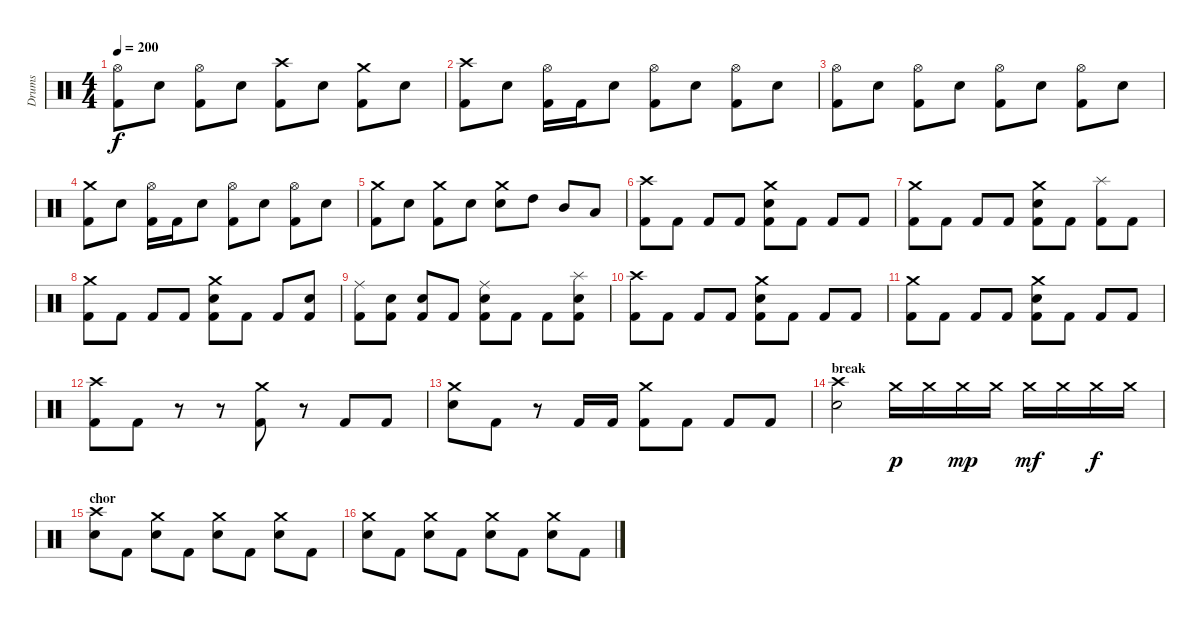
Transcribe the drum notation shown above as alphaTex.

\track ("Drums" "Drums") {instrument percussion}
\staff {score}
\articulation defaults
\ts (4 4)
\tempo 200
\clef neutral
\ks c
("Hi-Hat (open)" "Kick (hit) 2").8{dy f} "Electric Snare (hit)".8 ("Hi-Hat (open)" "Kick (hit) 2").8 "Electric Snare (hit)".8 ("Crash high (hit)" "Kick (hit) 2").8 "Electric Snare (hit)".8 ("Crash medium (hit)" "Kick (hit) 2").8 "Electric Snare (hit)".8 |
("Crash high (hit)" "Kick (hit) 2").8 "Electric Snare (hit)".8 ("Hi-Hat (open)" "Kick (hit) 2").16 "Kick (hit) 2".16 "Electric Snare (hit)".8 ("Hi-Hat (open)" "Kick (hit) 2").8 "Electric Snare (hit)".8 ("Hi-Hat (open)" "Kick (hit) 2").8 "Electric Snare (hit)".8 |
("Hi-Hat (open)" "Kick (hit) 2").8 "Electric Snare (hit)".8 ("Hi-Hat (open)" "Kick (hit) 2").8 "Electric Snare (hit)".8 ("Hi-Hat (open)" "Kick (hit) 2").8 "Electric Snare (hit)".8 ("Hi-Hat (open)" "Kick (hit) 2").8 "Electric Snare (hit)".8 |
("Crash medium (hit)" "Kick (hit) 2").8 "Electric Snare (hit)".8 ("Hi-Hat (open)" "Kick (hit) 2").16 "Kick (hit) 2".16 "Electric Snare (hit)".8 ("Hi-Hat (open)" "Kick (hit) 2").8 "Electric Snare (hit)".8 ("Hi-Hat (open)" "Kick (hit) 2").8 "Electric Snare (hit)".8 |
("Crash medium (hit)" "Kick (hit) 2").8 "Electric Snare (hit)".8 ("Crash medium (hit)" "Kick (hit) 2").8 "Electric Snare (hit)".8 ("Crash medium (hit)" "Electric Snare (hit)").8 "High Tom (hit)".8 "Mid Tom (hit)".8 "Low Tom (hit)".8 |
("Crash high (hit)" "Kick (hit) 2").8 "Kick (hit) 2".8 "Kick (hit) 2".8 "Kick (hit) 2".8 ("Crash medium (hit)" "Electric Snare (hit)" "Kick (hit) 2").8 "Kick (hit) 2".8 "Kick (hit) 2".8 "Kick (hit) 2".8 |
("Crash medium (hit)" "Kick (hit) 2").8 "Kick (hit) 2".8 "Kick (hit) 2".8 "Kick (hit) 2".8 ("Crash medium (hit)" "Electric Snare (hit)" "Kick (hit) 2").8 "Kick (hit) 2".8 ("Splash (hit)" "Kick (hit) 2").8 "Kick (hit) 2".8 |
("Crash medium (hit)" "Kick (hit) 2").8 "Kick (hit) 2".8 "Kick (hit) 2".8 "Kick (hit) 2".8 ("Crash medium (hit)" "Electric Snare (hit)" "Kick (hit) 2").8 "Kick (hit) 2".8 "Kick (hit) 2".8 ("Electric Snare (hit)" "Kick (hit) 2").8 |
("Ride (middle)" "Kick (hit) 2").8 ("Electric Snare (hit)" "Kick (hit) 2").8 ("Electric Snare (hit)" "Kick (hit) 2").8 "Kick (hit) 2".8 ("Ride (middle)" "Electric Snare (hit)" "Kick (hit) 2").8 "Kick (hit) 2".8 "Kick (hit) 2".8 ("Splash (hit)" "Electric Snare (hit)" "Kick (hit) 2").8 |
("Crash high (hit)" "Kick (hit) 2").8 "Kick (hit) 2".8 "Kick (hit) 2".8 "Kick (hit) 2".8 ("Crash medium (hit)" "Electric Snare (hit)" "Kick (hit) 2").8 "Kick (hit) 2".8 "Kick (hit) 2".8 "Kick (hit) 2".8 |
("Crash medium (hit)" "Kick (hit) 2").8 "Kick (hit) 2".8 "Kick (hit) 2".8 "Kick (hit) 2".8 ("Crash medium (hit)" "Electric Snare (hit)" "Kick (hit) 2").8 "Kick (hit) 2".8 "Kick (hit) 2".8 "Kick (hit) 2".8 |
("Crash high (hit)" "Kick (hit) 2").8 "Kick (hit) 2".8 r.8 r.8 ("Crash medium (hit)" "Kick (hit) 2").8 r.8 "Kick (hit) 2".8 "Kick (hit) 2".8 |
("Crash medium (hit)" "Electric Snare (hit)").8 "Kick (hit) 2".8 r.8 "Kick (hit) 2".16 "Kick (hit) 2".16 ("Crash medium (hit)" "Kick (hit) 2").8 "Kick (hit) 2".8 "Kick (hit) 2".8 "Kick (hit) 2".8 |
\section ("" "break")
("Crash high (hit)" "Electric Snare (hit)").2 "Crash medium (hit)".16{dy p} "Crash medium (hit)".16 "Crash medium (hit)".16{dy mp} "Crash medium (hit)".16 "Crash medium (hit)".16{dy mf} "Crash medium (hit)".16 "Crash medium (hit)".16{dy f} "Crash medium (hit)".16 |
\section ("" "chor")
("Crash high (hit)" "Electric Snare (hit)").8 "Kick (hit) 2".8 ("Crash medium (hit)" "Electric Snare (hit)").8 "Kick (hit) 2".8 ("Crash medium (hit)" "Electric Snare (hit)").8 "Kick (hit) 2".8 ("Crash medium (hit)" "Electric Snare (hit)").8 "Kick (hit) 2".8 |
("Crash medium (hit)" "Electric Snare (hit)").8 "Kick (hit) 2".8 ("Crash medium (hit)" "Electric Snare (hit)").8 "Kick (hit) 2".8 ("Crash medium (hit)" "Electric Snare (hit)").8 "Kick (hit) 2".8 ("Crash medium (hit)" "Electric Snare (hit)").8 "Kick (hit) 2".8
